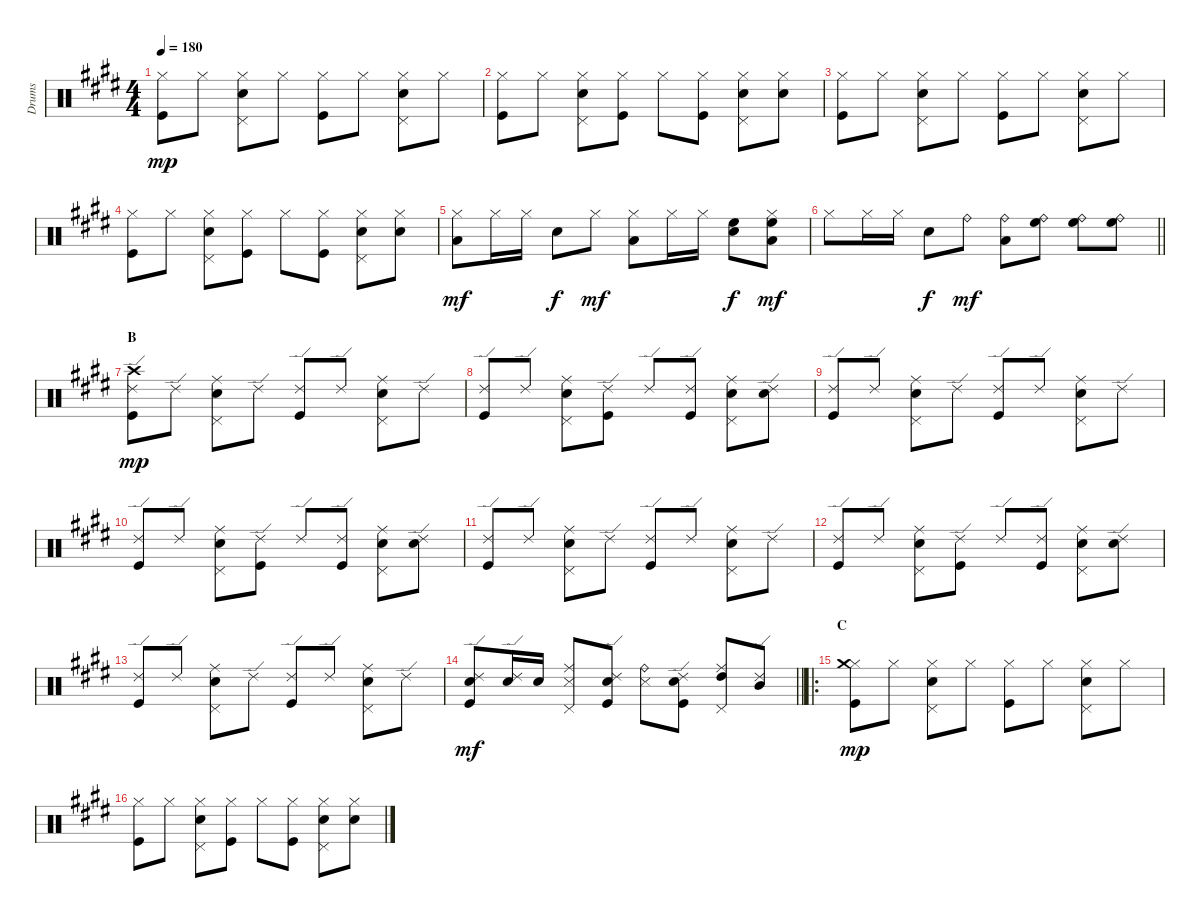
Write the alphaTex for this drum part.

\track ("Drums" "Drums") {instrument percussion}
\staff {score}
\articulation defaults
\ts (4 4)
\tempo 180
\clef neutral
\ks e
("Hi-Hat (closed)" "Kick (hit)").8{dy mp} "Hi-Hat (closed)".8 ("Hi-Hat (closed)" "Snare (hit) 2" "Pedal Hi-Hat (hit)").8 "Hi-Hat (closed)".8 ("Hi-Hat (closed)" "Kick (hit)").8 "Hi-Hat (closed)".8 ("Hi-Hat (closed)" "Snare (hit) 2" "Pedal Hi-Hat (hit)").8 "Hi-Hat (closed)".8 |
("Hi-Hat (closed)" "Kick (hit)").8 "Hi-Hat (closed)".8 ("Hi-Hat (closed)" "Snare (hit) 2" "Pedal Hi-Hat (hit)").8 ("Hi-Hat (closed)" "Kick (hit)").8 "Hi-Hat (closed)".8 ("Hi-Hat (closed)" "Kick (hit)").8 ("Hi-Hat (closed)" "Snare (hit) 2" "Pedal Hi-Hat (hit)").8 ("Hi-Hat (closed)" "Snare (hit) 2").8 |
("Hi-Hat (closed)" "Kick (hit)").8 "Hi-Hat (closed)".8 ("Hi-Hat (closed)" "Snare (hit) 2" "Pedal Hi-Hat (hit)").8 "Hi-Hat (closed)".8 ("Hi-Hat (closed)" "Kick (hit)").8 "Hi-Hat (closed)".8 ("Hi-Hat (closed)" "Snare (hit) 2" "Pedal Hi-Hat (hit)").8 "Hi-Hat (closed)".8 |
("Hi-Hat (closed)" "Kick (hit)").8 "Hi-Hat (closed)".8 ("Hi-Hat (closed)" "Snare (hit) 2" "Pedal Hi-Hat (hit)").8 ("Hi-Hat (closed)" "Kick (hit)").8 "Hi-Hat (closed)".8 ("Hi-Hat (closed)" "Kick (hit)").8 ("Hi-Hat (closed)" "Snare (hit) 2" "Pedal Hi-Hat (hit)").8 ("Hi-Hat (closed)" "Snare (hit) 2").8 |
("Hi-Hat (closed)" "Low Tom (hit)").8{dy mf} "Hi-Hat (closed)".16 "Hi-Hat (closed)".16 "Snare (hit) 2".8{dy f} "Hi-Hat (closed)".8{dy mf} ("Hi-Hat (closed)" "Low Tom (hit)").8 "Hi-Hat (closed)".16 "Hi-Hat (closed)".16 ("High Floor Tom (hit)" "Snare (hit) 2").8{dy f} ("Hi-Hat (closed)" "High Floor Tom (hit)" "Low Tom (hit)").8{dy mf} |
\barLineRight lightlight "Hi-Hat (closed)".8 "Hi-Hat (closed)".16 "Hi-Hat (closed)".16 "Snare (hit) 2".8{dy f} "Ride (bell)".8{dy mf}
("Ride (bell)" "Low Tom (hit)").8 ("Ride (bell)" "High Floor Tom (hit)").8 ("Ride (bell)" "High Floor Tom (hit)").8 ("Ride (bell)" "High Floor Tom (hit)").8 |
\section ("" "B")
("Ride (edge) 2" "Crash high (hit)" "Kick (hit)").8{dy mp} "Ride (edge) 2".8 ("Ride (middle)" "Snare (hit) 2" "Pedal Hi-Hat (hit)").8 "Ride (edge) 2".8 ("Ride (edge) 2" "Kick (hit)").8 "Ride (edge) 2".8 ("Ride (middle)" "Snare (hit) 2" "Pedal Hi-Hat (hit)").8 "Ride (edge) 2".8 |
("Ride (edge) 2" "Kick (hit)").8 "Ride (edge) 2".8 ("Ride (middle)" "Snare (hit) 2" "Pedal Hi-Hat (hit)").8 ("Ride (edge) 2" "Kick (hit)").8 "Ride (edge) 2".8 ("Ride (edge) 2" "Kick (hit)").8 ("Ride (middle)" "Snare (hit) 2" "Pedal Hi-Hat (hit)").8 ("Ride (edge) 2" "Snare (hit) 2").8 |
("Ride (edge) 2" "Kick (hit)").8 "Ride (edge) 2".8 ("Ride (middle)" "Snare (hit) 2" "Pedal Hi-Hat (hit)").8 "Ride (edge) 2".8 ("Ride (edge) 2" "Kick (hit)").8 "Ride (edge) 2".8 ("Ride (middle)" "Snare (hit) 2" "Pedal Hi-Hat (hit)").8 "Ride (edge) 2".8 |
("Ride (edge) 2" "Kick (hit)").8 "Ride (edge) 2".8 ("Ride (middle)" "Snare (hit) 2" "Pedal Hi-Hat (hit)").8 ("Ride (edge) 2" "Kick (hit)").8 "Ride (edge) 2".8 ("Ride (edge) 2" "Kick (hit)").8 ("Ride (middle)" "Snare (hit) 2" "Pedal Hi-Hat (hit)").8 ("Ride (edge) 2" "Snare (hit) 2").8 |
("Ride (edge) 2" "Kick (hit)").8 "Ride (edge) 2".8 ("Ride (middle)" "Snare (hit) 2" "Pedal Hi-Hat (hit)").8 "Ride (edge) 2".8 ("Ride (edge) 2" "Kick (hit)").8 "Ride (edge) 2".8 ("Ride (middle)" "Snare (hit) 2" "Pedal Hi-Hat (hit)").8 "Ride (edge) 2".8 |
("Ride (edge) 2" "Kick (hit)").8 "Ride (edge) 2".8 ("Ride (middle)" "Snare (hit) 2" "Pedal Hi-Hat (hit)").8 ("Ride (edge) 2" "Kick (hit)").8 "Ride (edge) 2".8 ("Ride (edge) 2" "Kick (hit)").8 ("Ride (middle)" "Snare (hit) 2" "Pedal Hi-Hat (hit)").8 ("Ride (edge) 2" "Snare (hit) 2").8 |
("Ride (edge) 2" "Kick (hit)").8 "Ride (edge) 2".8 ("Ride (middle)" "Snare (hit) 2" "Pedal Hi-Hat (hit)").8 "Ride (edge) 2".8 ("Ride (edge) 2" "Kick (hit)").8 "Ride (edge) 2".8 ("Ride (middle)" "Snare (hit) 2" "Pedal Hi-Hat (hit)").8 "Ride (edge) 2".8 |
\barLineRight lightlight
("Ride (edge) 2" "Snare (hit) 2" "Kick (hit)").8{dy mf} ("Ride (edge) 2" "Snare (hit) 2").16 "Snare (hit) 2".16 ("Ride (middle)" "Snare (side stick) 3" "Pedal Hi-Hat (hit)").8 ("Ride (edge) 2" "Snare (hit) 2" "Kick (hit)").8 ("Ride (bell)" "Snare (side stick) 3").8 ("Ride (edge) 2" "Snare (hit) 2" "Kick (hit)").8 ("Ride (middle)" "High Tom (hit)" "Pedal Hi-Hat (hit)").8 ("Ride (edge) 2" "Mid Tom (hit)").8 |
\ro
\section ("" "C")
("Hi-Hat (closed)" "Crash medium (hit)" "Kick (hit)").8{dy mp} "Hi-Hat (closed)".8 ("Hi-Hat (closed)" "Snare (hit) 2" "Pedal Hi-Hat (hit)").8 "Hi-Hat (closed)".8 ("Hi-Hat (closed)" "Kick (hit)").8 "Hi-Hat (closed)".8 ("Hi-Hat (closed)" "Snare (hit) 2" "Pedal Hi-Hat (hit)").8 "Hi-Hat (closed)".8 |
("Hi-Hat (closed)" "Kick (hit)").8 "Hi-Hat (closed)".8 ("Hi-Hat (closed)" "Snare (hit) 2" "Pedal Hi-Hat (hit)").8 ("Hi-Hat (closed)" "Kick (hit)").8 "Hi-Hat (closed)".8 ("Hi-Hat (closed)" "Kick (hit)").8 ("Hi-Hat (closed)" "Snare (hit) 2" "Pedal Hi-Hat (hit)").8 ("Hi-Hat (closed)" "Snare (hit) 2").8
